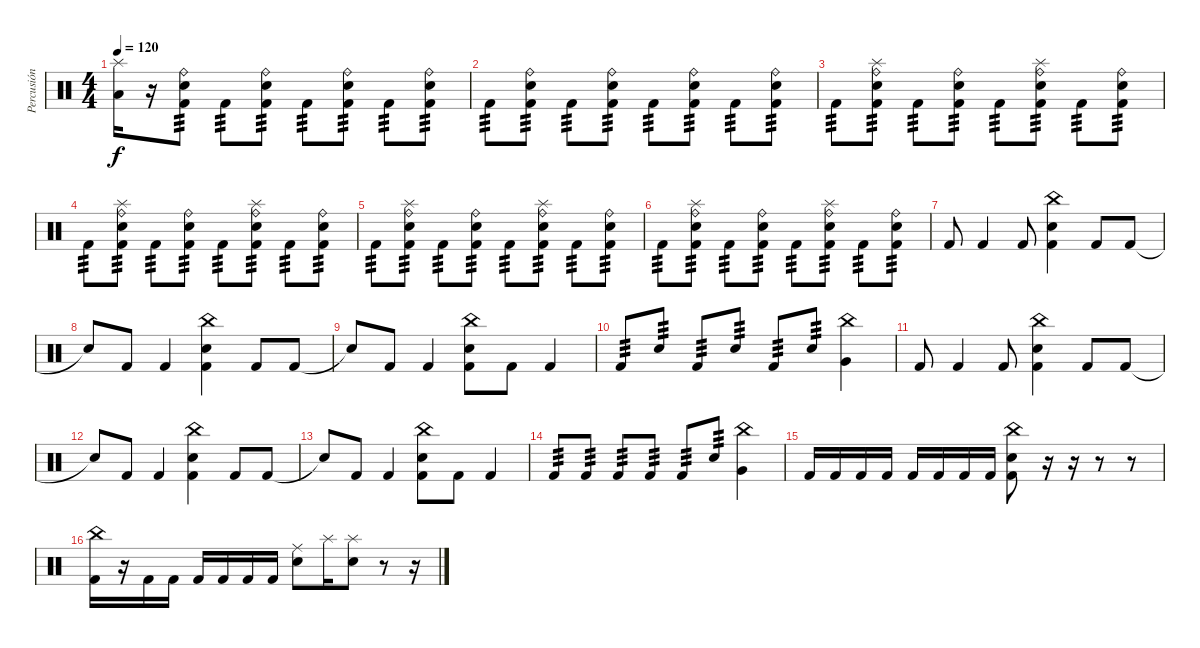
\track ("Percusión" "Percusión") {instrument percussion}
\staff {score}
\articulation defaults
\ts (4 4)
\tempo 120
\clef neutral
\ks c
("Low Floor Tom (hit)" "Splash (hit)").16{dy f} r.16 ("Kick (hit) 2" "Electric Snare (hit)" "Ride (bell)").8{tp 3} "Kick (hit) 2".8{tp 3} ("Kick (hit) 2" "Ride (bell)" "Electric Snare (hit)").8{tp 3} "Kick (hit) 2".8{tp 3} ("Kick (hit) 2" "Electric Snare (hit)" "Ride (bell)").8{tp 3} "Kick (hit) 2".8{tp 3} ("Kick (hit) 2" "Electric Snare (hit)" "Ride (bell)").8{tp 3} |
"Kick (hit) 2".8{tp 3} ("Kick (hit) 2" "Electric Snare (hit)" "Ride (bell)").8{tp 3} "Kick (hit) 2".8{tp 3} ("Kick (hit) 2" "Electric Snare (hit)" "Ride (bell)").8{tp 3} "Kick (hit) 2".8{tp 3} ("Kick (hit) 2" "Electric Snare (hit)" "Ride (bell)").8{tp 3} "Kick (hit) 2".8{tp 3} ("Kick (hit) 2" "Electric Snare (hit)" "Ride (bell)").8{tp 3} |
"Kick (hit) 2".8{tp 3} ("Kick (hit) 2" "Electric Snare (hit)" "Ride (bell)" "Splash (hit)").8{tp 3} "Kick (hit) 2".8{tp 3} ("Kick (hit) 2" "Electric Snare (hit)" "Ride (bell)").8{tp 3} "Kick (hit) 2".8{tp 3} ("Kick (hit) 2" "Electric Snare (hit)" "Ride (bell)" "Splash (hit)").8{tp 3} "Kick (hit) 2".8{tp 3} ("Kick (hit) 2" "Electric Snare (hit)" "Ride (bell)").8{tp 3} |
"Kick (hit) 2".8{tp 3} ("Kick (hit) 2" "Electric Snare (hit)" "Ride (bell)" "Splash (hit)").8{tp 3} "Kick (hit) 2".8{tp 3} ("Kick (hit) 2" "Electric Snare (hit)" "Ride (bell)").8{tp 3} "Kick (hit) 2".8{tp 3} ("Kick (hit) 2" "Electric Snare (hit)" "Ride (bell)" "Splash (hit)").8{tp 3} "Kick (hit) 2".8{tp 3} ("Kick (hit) 2" "Electric Snare (hit)" "Ride (bell)").8{tp 3} |
"Kick (hit) 2".8{tp 3} ("Kick (hit) 2" "Electric Snare (hit)" "Ride (bell)" "Splash (hit)").8{tp 3} "Kick (hit) 2".8{tp 3} ("Kick (hit) 2" "Electric Snare (hit)" "Ride (bell)").8{tp 3} "Kick (hit) 2".8{tp 3} ("Kick (hit) 2" "Electric Snare (hit)" "Ride (bell)" "Splash (hit)").8{tp 3} "Kick (hit) 2".8{tp 3} ("Kick (hit) 2" "Electric Snare (hit)" "Ride (bell)").8{tp 3} |
"Kick (hit) 2".8{tp 3} ("Kick (hit) 2" "Electric Snare (hit)" "Ride (bell)" "Splash (hit)").8{tp 3} "Kick (hit) 2".8{tp 3} ("Kick (hit) 2" "Electric Snare (hit)" "Ride (bell)").8{tp 3} "Kick (hit) 2".8{tp 3} ("Kick (hit) 2" "Electric Snare (hit)" "Ride (bell)" "Splash (hit)").8{tp 3} "Kick (hit) 2".8{tp 3} ("Kick (hit) 2" "Electric Snare (hit)" "Ride (bell)").8{tp 3} |
"Kick (hit) 2".8 "Kick (hit) 2".4 "Kick (hit) 2".8 ("Kick (hit) 2" "Electric Snare (hit)" "China (hit)").4 "Kick (hit) 2".8 "Kick (hit) 2".8 |
"Snare (hit)"{t}.8 "Kick (hit) 2".8 "Kick (hit) 2".4 ("Kick (hit) 2" "China (hit)" "Electric Snare (hit)").4 "Kick (hit) 2".8 "Kick (hit) 2".8 |
"Snare (hit)"{t}.8 "Kick (hit) 2".8 "Kick (hit) 2".4 ("China (hit)" "Electric Snare (hit)" "Kick (hit) 2").8 "Kick (hit) 2".8 "Kick (hit) 2".4 |
"Kick (hit) 2".8{tp 3} "Electric Snare (hit)".8{tp 3} "Kick (hit) 2".8{tp 3} "Electric Snare (hit)".8{tp 3} "Kick (hit) 2".8{tp 3} "Electric Snare (hit)".8{tp 3} ("Very Low Tom (hit)" "China (hit)").4 |
"Kick (hit) 2".8 "Kick (hit) 2".4 "Kick (hit) 2".8 ("Kick (hit) 2" "Electric Snare (hit)" "China (hit)").4 "Kick (hit) 2".8 "Kick (hit) 2".8 |
"Snare (hit)"{t}.8 "Kick (hit) 2".8 "Kick (hit) 2".4 ("Kick (hit) 2" "China (hit)" "Electric Snare (hit)").4 "Kick (hit) 2".8 "Kick (hit) 2".8 |
"Snare (hit)"{t}.8 "Kick (hit) 2".8 "Kick (hit) 2".4 ("China (hit)" "Electric Snare (hit)" "Kick (hit) 2").8 "Kick (hit) 2".8 "Kick (hit) 2".4 |
"Kick (hit) 2".8{tp 3} "Kick (hit) 2".8{tp 3} "Kick (hit) 2".8{tp 3} "Kick (hit) 2".8{tp 3} "Kick (hit) 2".8{tp 3} "Electric Snare (hit)".8{tp 3} ("Very Low Tom (hit)" "China (hit)").4 |
"Kick (hit) 2".16 "Kick (hit) 2".16 "Kick (hit) 2".16 "Kick (hit) 2".16 "Kick (hit) 2".16 "Kick (hit) 2".16 "Kick (hit) 2".16 "Kick (hit) 2".16 ("Kick (hit) 2" "Electric Snare (hit)" "China (hit)").8 r.16 r.16 r.8 r.8 |
("China (hit)" "Kick (hit) 2").16 r.16 "Kick (hit) 2".16 "Kick (hit) 2".16 "Kick (hit) 2".16 "Kick (hit) 2".16 "Kick (hit) 2".16 "Kick (hit) 2".16 ("Electric Snare (hit)" "Ride (middle)").8 "Splash (hit)".16 ("Electric Snare (hit)" "Splash (hit)").8 r.8 r.16
